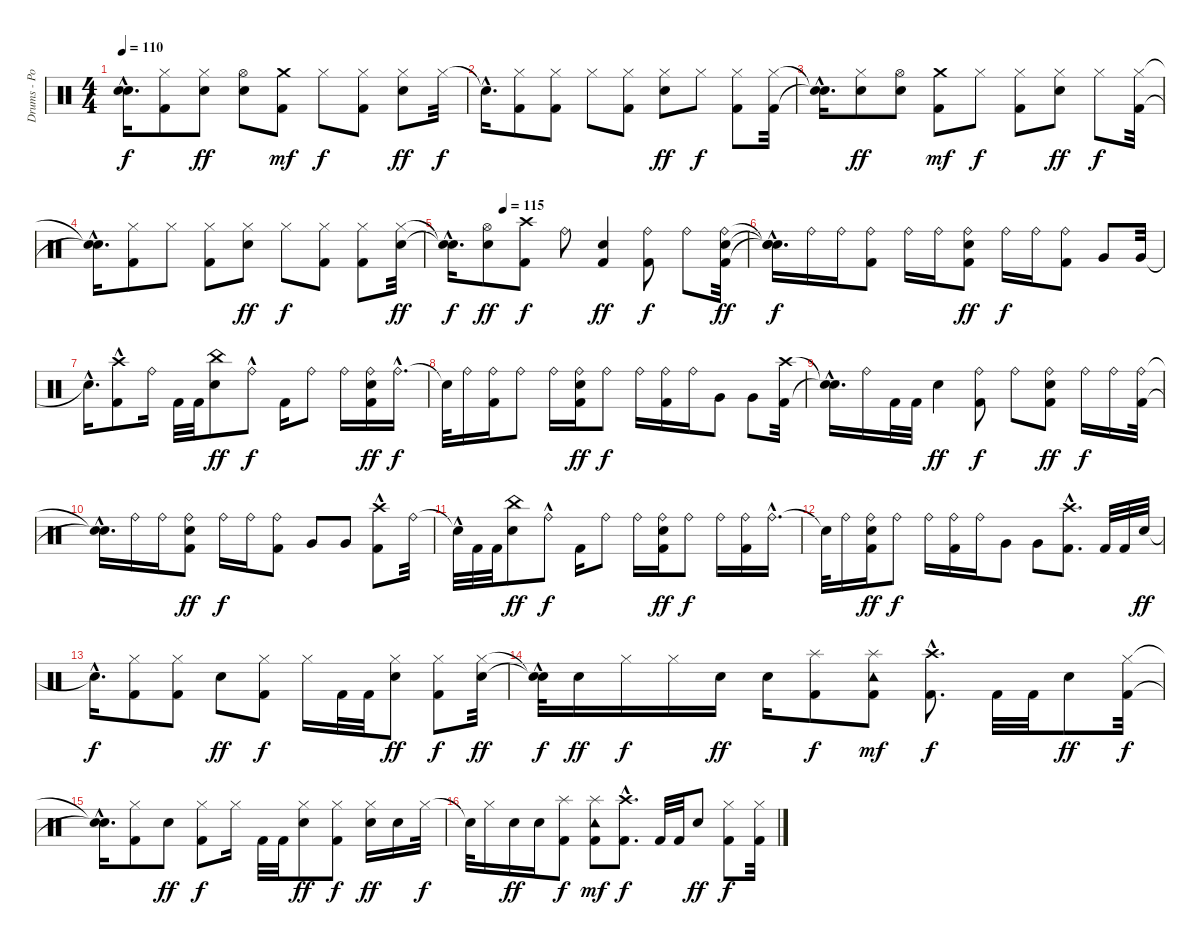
\track ("Drums - Portnoy" "Drums - Po") {instrument percussion}
\staff {score}
\articulation defaults
\ts (4 4)
\tempo 110
\clef neutral
\ks c
("Snare (hit)"{hac t} "Snare (hit)"{hac t}).16{d dy f} ("Kick (hit) 2" "Hi-Hat (closed)").8 ("Hi-Hat (closed)" "Electric Snare (hit)").8{dy ff} ("Hi-Hat (open)" "Electric Snare (hit)").8 ("Kick (hit) 2" "Crash medium (hit)").8{dy mf} "Hi-Hat (closed)".8{dy f} ("Kick (hit) 2" "Hi-Hat (closed)").8 ("Hi-Hat (closed)" "Electric Snare (hit)").8{dy ff} "Hi-Hat (closed)".32{dy f} |
"Snare (hit)"{hac t}.16{d} ("Kick (hit) 2" "Hi-Hat (closed)").8 ("Kick (hit) 2" "Hi-Hat (closed)").8 "Hi-Hat (closed)".8 ("Kick (hit) 2" "Hi-Hat (closed)").8 ("Hi-Hat (closed)" "Electric Snare (hit)").8{dy ff} "Hi-Hat (closed)".8{dy f} ("Kick (hit) 2" "Hi-Hat (closed)").8 ("Kick (hit) 2" "Hi-Hat (closed)").32 |
("Snare (hit)"{hac t} "Snare (hit)"{hac t}).16{d} ("Hi-Hat (closed)" "Electric Snare (hit)").8{dy ff} ("Hi-Hat (open)" "Electric Snare (hit)").8 ("Kick (hit) 2" "Crash medium (hit)").8{dy mf} "Hi-Hat (closed)".8{dy f} ("Kick (hit) 2" "Hi-Hat (closed)").8 ("Hi-Hat (closed)" "Electric Snare (hit)").8{dy ff} "Hi-Hat (closed)".8{dy f} ("Kick (hit) 2" "Hi-Hat (closed)").32 |
("Snare (hit)"{hac t} "Snare (hit)"{hac t}).16{d} ("Kick (hit) 2" "Hi-Hat (closed)").8 "Hi-Hat (closed)".8 ("Kick (hit) 2" "Hi-Hat (closed)").8 ("Hi-Hat (closed)" "Electric Snare (hit)").8{dy ff} "Hi-Hat (closed)".8{dy f} ("Kick (hit) 2" "Hi-Hat (closed)").8 ("Kick (hit) 2" "Hi-Hat (closed)").8 ("Hi-Hat (closed)" "Electric Snare (hit)").32{dy ff} |
\tempo (115 0.1875)
("Snare (hit)"{hac t} "Snare (hit)"{hac t}).16{d dy f} ("Hi-Hat (open)" "Electric Snare (hit)").8{dy ff} ("Kick (hit) 2" "Crash high (hit)").8{dy f} "Ride (bell)".8 ("Kick (hit) 2" "Electric Snare (hit)").4{dy ff} ("Kick (hit) 2" "Ride (bell)").8{dy f} "Ride (bell)".8 ("Kick (hit) 2" "Ride (bell)" "Electric Snare (hit)").32{dy ff} |
("Snare (hit)"{hac t} "Snare (hit)"{hac t} "Snare (hit)"{hac t}).16{d dy f} "Ride (bell)".16 "Ride (bell)".16 ("Kick (hit) 2" "Ride (bell)").8 "Ride (bell)".16 "Ride (bell)".16 ("Kick (hit) 2" "Ride (bell)" "Electric Snare (hit)").8{dy ff} "Ride (bell)".16{dy f} "Ride (bell)".16 ("Kick (hit) 2" "Ride (bell)").8 "Very Low Tom (hit)".8 "Very Low Tom (hit)".32 |
"Snare (hit)"{hac t}.16{d} ("Kick (hit) 2"{hac} "Crash high (hit)").8 "Ride (bell)".16 "Kick (hit) 2".32 "Kick (hit) 2".32 ("Electric Snare (hit)" "China (hit)").8{dy ff} "Ride (bell)"{hac}.8{dy f} "Kick (hit) 2".16 "Ride (bell)".8 "Ride (bell)".16 ("Electric Snare (hit)" "Kick (hit) 2" "Ride (bell)").16{dy ff} "Ride (bell)"{hac}.16{d dy f} |
"Snare (hit)"{t}.32 "Ride (bell)".16 ("Kick (hit) 2" "Ride (bell)").16 "Ride (bell)".8 "Ride (bell)".16 ("Electric Snare (hit)" "Kick (hit) 2" "Ride (bell)").16{dy ff} "Ride (bell)".8{dy f} "Ride (bell)".16 ("Kick (hit) 2" "Ride (bell)").16 "Ride (bell)".16 "Very Low Tom (hit)".8 "Very Low Tom (hit)".8 ("Crash high (hit)" "Kick (hit) 2").32 |
("Snare (hit)"{hac t} "Snare (hit)"{t}).16{d} "Ride (bell)".16 "Kick (hit) 2".32 "Kick (hit) 2".32 "Electric Snare (hit)".4{dy ff} ("Kick (hit) 2" "Ride (bell)").8{dy f} "Ride (bell)".8 ("Kick (hit) 2" "Ride (bell)" "Electric Snare (hit)").8{dy ff} "Ride (bell)".16{dy f} "Ride (bell)".16 ("Kick (hit) 2" "Ride (bell)").32 |
("Snare (hit)"{hac t} "Snare (hit)"{hac t}).16{d} "Ride (bell)".16 "Ride (bell)".16 ("Kick (hit) 2" "Ride (bell)" "Electric Snare (hit)").8{dy ff} "Ride (bell)".16{dy f} "Ride (bell)".16 ("Kick (hit) 2" "Ride (bell)").8 "Very Low Tom (hit)".8 "Very Low Tom (hit)".8 ("Kick (hit) 2"{hac} "Crash high (hit)").8 "Ride (bell)".32 |
"Snare (hit)"{hac t}.32 "Kick (hit) 2".32 "Kick (hit) 2".32 ("Electric Snare (hit)" "China (hit)").8{dy ff} "Ride (bell)"{hac}.8{dy f} "Kick (hit) 2".16 "Ride (bell)".8 "Ride (bell)".16 ("Electric Snare (hit)" "Kick (hit) 2" "Ride (bell)").16{dy ff} "Ride (bell)".8{dy f} "Ride (bell)".16 ("Kick (hit) 2" "Ride (bell)").16 "Ride (bell)"{hac}.16{d} |
"Snare (hit)"{t}.32 "Ride (bell)".16 ("Electric Snare (hit)" "Kick (hit) 2" "Ride (bell)").16{dy ff} "Ride (bell)".8{dy f} "Ride (bell)".16 ("Kick (hit) 2" "Ride (bell)").16 "Ride (bell)".16 "Very Low Tom (hit)".8 "Very Low Tom (hit)".8 ("Kick (hit) 2"{hac} "Crash high (hit)").8{d} "Kick (hit) 2".32 "Kick (hit) 2".32 "Electric Snare (hit)".32{dy ff} |
"Snare (hit)"{hac t}.16{d dy f} ("Kick (hit) 2" "Hi-Hat (closed)").8 ("Kick (hit) 2" "Hi-Hat (closed)").8 "Electric Snare (hit)".8{dy ff} ("Kick (hit) 2" "Hi-Hat (closed)").8{dy f} "Hi-Hat (closed)".16 "Kick (hit) 2".32 "Kick (hit) 2".32 ("Hi-Hat (closed)" "Electric Snare (hit)").8{dy ff} ("Kick (hit) 2" "Hi-Hat (closed)").8{dy f} ("Hi-Hat (closed)" "Electric Snare (hit)").32{dy ff} |
("Snare (hit)"{hac t} "Snare (hit)"{t}).32{dy f} "Electric Snare (hit)".16{dy ff} "Hi-Hat (closed)".16{dy f} "Hi-Hat (closed)".16 "Electric Snare (hit)".16{dy ff} "Electric Snare (hit)".16 ("Splash (hit)" "Kick (hit) 2").8{dy f} ("Splash (hit)" "Kick (hit) 2" "Tambourine (hit)").8{dy mf} ("Crash high (hit)" "Kick (hit) 2"{hac}).8{d dy f} "Kick (hit) 2".32 "Kick (hit) 2".32 "Electric Snare (hit)".8{dy ff} ("Kick (hit) 2" "Hi-Hat (closed)").32{dy f} |
("Snare (hit)"{hac t} "Snare (hit)"{hac t}).16{d} ("Kick (hit) 2" "Hi-Hat (closed)").8 "Electric Snare (hit)".8{dy ff} ("Kick (hit) 2" "Hi-Hat (closed)").8{dy f} "Hi-Hat (closed)".16 "Kick (hit) 2".32 "Kick (hit) 2".32 ("Hi-Hat (closed)" "Electric Snare (hit)").8{dy ff} ("Kick (hit) 2" "Hi-Hat (closed)").8{dy f} ("Hi-Hat (closed)" "Electric Snare (hit)").16{dy ff} "Electric Snare (hit)".16 "Hi-Hat (closed)".32{dy f} |
"Snare (hit)"{t}.32 "Hi-Hat (closed)".16 "Electric Snare (hit)".16{dy ff} "Electric Snare (hit)".16 ("Splash (hit)" "Kick (hit) 2").8{dy f} ("Splash (hit)" "Kick (hit) 2" "Tambourine (hit)").8{dy mf} ("Kick (hit) 2"{hac} "Crash high (hit)").8{d dy f} "Kick (hit) 2".32 "Kick (hit) 2".32 "Electric Snare (hit)".8{dy ff} ("Kick (hit) 2" "Hi-Hat (closed)").8{dy f} ("Kick (hit) 2" "Hi-Hat (closed)").32
